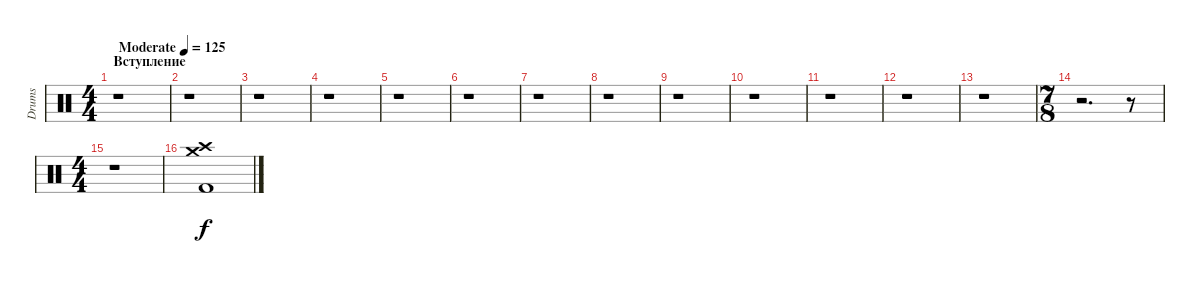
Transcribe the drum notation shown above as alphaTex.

\track ("Drums" "Drums") {instrument percussion}
\staff {score}
\articulation defaults
\ts (4 4)
\section ("" "Вступление")
\tempo (125 "Moderate")
\clef neutral
\ks c
r.1{dy f} |
r.1 |
r.1 |
r.1 |
r.1 |
r.1 |
r.1 |
r.1 |
r.1 |
r.1 |
r.1 |
r.1 |
r.1 |
\ts (7 8)
r.2{d} r.8 |
\ts (4 4)
r.1 |
("Crash high (hit)" "Crash medium (hit)" "Kick (hit) 2").1
